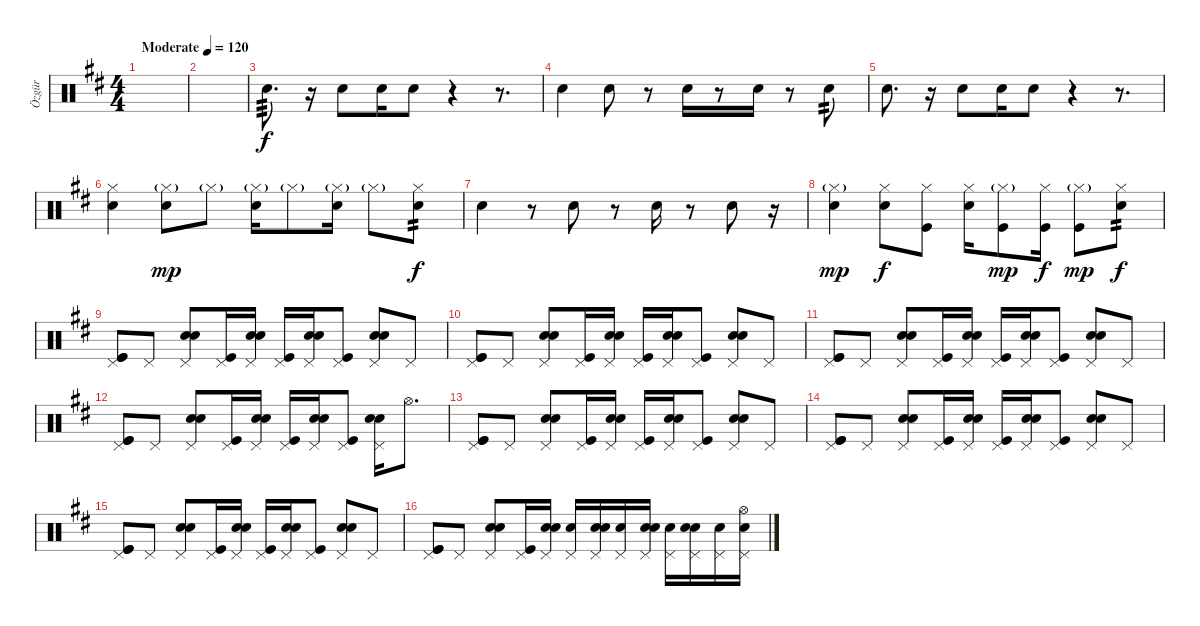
\track ("Özgür" "Özgür") {instrument percussion}
\staff {score}
\articulation defaults
\ts (4 4)
\tempo (120 "Moderate")
\clef neutral
\ks d
|
|
"Electric Snare (hit)".8{d tp 3} r.16 "Electric Snare (hit)".8 "Electric Snare (hit)".16 "Electric Snare (hit)".8 r.4 r.8{d} |
"Electric Snare (hit)".4 "Electric Snare (hit)".8 r.8 "Electric Snare (hit)".16 r.8 "Electric Snare (hit)".16 r.8 "Electric Snare (hit)".8{tp 2} |
"Electric Snare (hit)".8{d} r.16 "Electric Snare (hit)".8 "Electric Snare (hit)".16 "Electric Snare (hit)".8 r.4 r.8{d} |
("Hi-Hat (closed)" "Electric Snare (hit)").4 ("Hi-Hat (closed)"{g} "Electric Snare (hit)").8{dy mp} "Hi-Hat (closed)"{g}.8 ("Hi-Hat (closed)"{g} "Electric Snare (hit)").16 "Hi-Hat (closed)"{g}.8 ("Hi-Hat (closed)"{g} "Electric Snare (hit)").16 "Hi-Hat (closed)"{g}.8 ("Hi-Hat (closed)" "Electric Snare (hit)").8{tp 2 dy f} |
"Electric Snare (hit)".4 r.8 "Electric Snare (hit)".8 r.8 "Electric Snare (hit)".16 r.8 "Electric Snare (hit)".8 r.16 |
("Hi-Hat (closed)"{g} "Electric Snare (hit)").4{dy mp} ("Hi-Hat (closed)" "Electric Snare (hit)").8{dy f} ("Hi-Hat (closed)" "Kick (hit)").8 ("Hi-Hat (closed)" "Electric Snare (hit)").16 ("Hi-Hat (closed)"{g} "Kick (hit)").8{dy mp} ("Hi-Hat (closed)" "Kick (hit)").16{dy f} ("Hi-Hat (closed)"{g} "Kick (hit)").8{dy mp} ("Hi-Hat (closed)" "Electric Snare (hit)").8{tp 2 dy f} |
("Pedal Hi-Hat (hit)" "Kick (hit)" "Kick (hit)").8 "Pedal Hi-Hat (hit)".8 ("Pedal Hi-Hat (hit)" "Electric Snare (hit)" "Electric Snare (hit)").8 ("Pedal Hi-Hat (hit)" "Kick (hit)").16 ("Pedal Hi-Hat (hit)" "Electric Snare (hit)" "Electric Snare (hit)").16 ("Pedal Hi-Hat (hit)" "Kick (hit)").16 ("Pedal Hi-Hat (hit)" "Electric Snare (hit)" "Electric Snare (hit)").16 ("Pedal Hi-Hat (hit)" "Kick (hit)").8 ("Pedal Hi-Hat (hit)" "Electric Snare (hit)" "Electric Snare (hit)").8 "Pedal Hi-Hat (hit)".8 |
("Pedal Hi-Hat (hit)" "Kick (hit)" "Kick (hit)").8 "Pedal Hi-Hat (hit)".8 ("Pedal Hi-Hat (hit)" "Electric Snare (hit)" "Electric Snare (hit)").8 ("Pedal Hi-Hat (hit)" "Kick (hit)").16 ("Pedal Hi-Hat (hit)" "Electric Snare (hit)" "Electric Snare (hit)").16 ("Pedal Hi-Hat (hit)" "Kick (hit)").16 ("Pedal Hi-Hat (hit)" "Electric Snare (hit)" "Electric Snare (hit)").16 ("Pedal Hi-Hat (hit)" "Kick (hit)").8 ("Pedal Hi-Hat (hit)" "Electric Snare (hit)" "Electric Snare (hit)").8 "Pedal Hi-Hat (hit)".8 |
("Pedal Hi-Hat (hit)" "Kick (hit)" "Kick (hit)").8 "Pedal Hi-Hat (hit)".8 ("Pedal Hi-Hat (hit)" "Electric Snare (hit)" "Electric Snare (hit)").8 ("Pedal Hi-Hat (hit)" "Kick (hit)").16 ("Pedal Hi-Hat (hit)" "Electric Snare (hit)" "Electric Snare (hit)").16 ("Pedal Hi-Hat (hit)" "Kick (hit)").16 ("Pedal Hi-Hat (hit)" "Electric Snare (hit)" "Electric Snare (hit)").16 ("Pedal Hi-Hat (hit)" "Kick (hit)").8 ("Pedal Hi-Hat (hit)" "Electric Snare (hit)" "Electric Snare (hit)").8 "Pedal Hi-Hat (hit)".8 |
("Pedal Hi-Hat (hit)" "Kick (hit)" "Kick (hit)").8 "Pedal Hi-Hat (hit)".8 ("Pedal Hi-Hat (hit)" "Electric Snare (hit)" "Electric Snare (hit)").8 ("Pedal Hi-Hat (hit)" "Kick (hit)").16 ("Pedal Hi-Hat (hit)" "Electric Snare (hit)" "Electric Snare (hit)").16 ("Pedal Hi-Hat (hit)" "Kick (hit)").16 ("Pedal Hi-Hat (hit)" "Electric Snare (hit)" "Electric Snare (hit)").16 ("Pedal Hi-Hat (hit)" "Kick (hit)").8 ("Pedal Hi-Hat (hit)" "Electric Snare (hit)" "Electric Snare (hit)").16 "Hi-Hat (open)".8{d} |
("Pedal Hi-Hat (hit)" "Kick (hit)" "Kick (hit)").8 "Pedal Hi-Hat (hit)".8 ("Pedal Hi-Hat (hit)" "Electric Snare (hit)" "Electric Snare (hit)").8 ("Pedal Hi-Hat (hit)" "Kick (hit)").16 ("Pedal Hi-Hat (hit)" "Electric Snare (hit)" "Electric Snare (hit)").16 ("Pedal Hi-Hat (hit)" "Kick (hit)").16 ("Pedal Hi-Hat (hit)" "Electric Snare (hit)" "Electric Snare (hit)").16 ("Pedal Hi-Hat (hit)" "Kick (hit)").8 ("Pedal Hi-Hat (hit)" "Electric Snare (hit)" "Electric Snare (hit)").8 "Pedal Hi-Hat (hit)".8 |
("Pedal Hi-Hat (hit)" "Kick (hit)" "Kick (hit)").8 "Pedal Hi-Hat (hit)".8 ("Pedal Hi-Hat (hit)" "Electric Snare (hit)" "Electric Snare (hit)").8 ("Pedal Hi-Hat (hit)" "Kick (hit)").16 ("Pedal Hi-Hat (hit)" "Electric Snare (hit)" "Electric Snare (hit)").16 ("Pedal Hi-Hat (hit)" "Kick (hit)").16 ("Pedal Hi-Hat (hit)" "Electric Snare (hit)" "Electric Snare (hit)").16 ("Pedal Hi-Hat (hit)" "Kick (hit)").8 ("Pedal Hi-Hat (hit)" "Electric Snare (hit)" "Electric Snare (hit)").8 "Pedal Hi-Hat (hit)".8 |
("Pedal Hi-Hat (hit)" "Kick (hit)" "Kick (hit)").8 "Pedal Hi-Hat (hit)".8 ("Pedal Hi-Hat (hit)" "Electric Snare (hit)" "Electric Snare (hit)").8 ("Pedal Hi-Hat (hit)" "Kick (hit)").16 ("Pedal Hi-Hat (hit)" "Electric Snare (hit)" "Electric Snare (hit)").16 ("Pedal Hi-Hat (hit)" "Kick (hit)").16 ("Pedal Hi-Hat (hit)" "Electric Snare (hit)" "Electric Snare (hit)").16 ("Pedal Hi-Hat (hit)" "Kick (hit)").8 ("Pedal Hi-Hat (hit)" "Electric Snare (hit)" "Electric Snare (hit)").8 "Pedal Hi-Hat (hit)".8 |
("Pedal Hi-Hat (hit)" "Kick (hit)" "Kick (hit)").8 "Pedal Hi-Hat (hit)".8 ("Pedal Hi-Hat (hit)" "Electric Snare (hit)" "Electric Snare (hit)").8 ("Pedal Hi-Hat (hit)" "Kick (hit)").16 ("Pedal Hi-Hat (hit)" "Electric Snare (hit)" "Electric Snare (hit)").16 ("Pedal Hi-Hat (hit)" "Electric Snare (hit)").16 ("Pedal Hi-Hat (hit)" "Electric Snare (hit)" "Electric Snare (hit)").16 ("Pedal Hi-Hat (hit)" "Electric Snare (hit)").16 ("Pedal Hi-Hat (hit)" "Electric Snare (hit)" "Electric Snare (hit)").16 ("Pedal Hi-Hat (hit)" "Electric Snare (hit)").16 ("Pedal Hi-Hat (hit)" "Electric Snare (hit)" "Electric Snare (hit)").16 ("Pedal Hi-Hat (hit)" "Electric Snare (hit)").16 ("Pedal Hi-Hat (hit)" "Hi-Hat (open)" "Electric Snare (hit)").16
